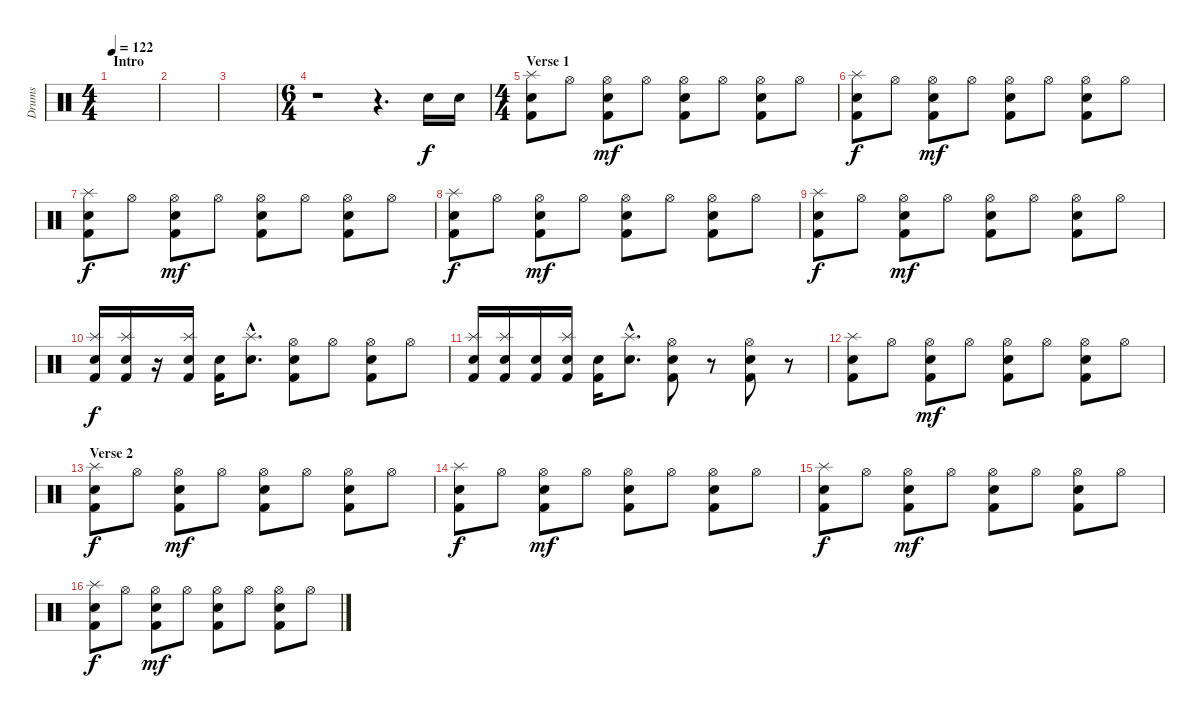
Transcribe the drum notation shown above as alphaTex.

\track ("Drums" "Drums") {instrument percussion}
\staff {score}
\articulation defaults
\ts (4 4)
\section ("" "Intro")
\tempo 122
\clef neutral
\ks c
|
|
|
\ts (6 4)
r.1 r.4{d} "Snare (hit) 2".16 "Snare (hit) 2".16 |
\ts (4 4)
\section ("" "Verse 1")
("Splash (hit)" "Snare (hit) 2" "Kick (hit) 2").8 "Hi-Hat (open)".8 ("Hi-Hat (open)" "Snare (hit) 2" "Kick (hit) 2").8{dy mf} "Hi-Hat (open)".8 ("Hi-Hat (open)" "Snare (hit) 2" "Kick (hit) 2").8 "Hi-Hat (open)".8 ("Hi-Hat (open)" "Snare (hit) 2" "Kick (hit) 2").8 "Hi-Hat (open)".8 |
("Splash (hit)" "Snare (hit) 2" "Kick (hit) 2").8{dy f} "Hi-Hat (open)".8 ("Hi-Hat (open)" "Snare (hit) 2" "Kick (hit) 2").8{dy mf} "Hi-Hat (open)".8 ("Hi-Hat (open)" "Snare (hit) 2" "Kick (hit) 2").8 "Hi-Hat (open)".8 ("Hi-Hat (open)" "Snare (hit) 2" "Kick (hit) 2").8 "Hi-Hat (open)".8 |
("Splash (hit)" "Snare (hit) 2" "Kick (hit) 2").8{dy f} "Hi-Hat (open)".8 ("Hi-Hat (open)" "Snare (hit) 2" "Kick (hit) 2").8{dy mf} "Hi-Hat (open)".8 ("Hi-Hat (open)" "Snare (hit) 2" "Kick (hit) 2").8 "Hi-Hat (open)".8 ("Hi-Hat (open)" "Snare (hit) 2" "Kick (hit) 2").8 "Hi-Hat (open)".8 |
("Splash (hit)" "Snare (hit) 2" "Kick (hit) 2").8{dy f} "Hi-Hat (open)".8 ("Hi-Hat (open)" "Snare (hit) 2" "Kick (hit) 2").8{dy mf} "Hi-Hat (open)".8 ("Hi-Hat (open)" "Snare (hit) 2" "Kick (hit) 2").8 "Hi-Hat (open)".8 ("Hi-Hat (open)" "Snare (hit) 2" "Kick (hit) 2").8 "Hi-Hat (open)".8 |
("Splash (hit)" "Snare (hit) 2" "Kick (hit) 2").8{dy f} "Hi-Hat (open)".8 ("Hi-Hat (open)" "Snare (hit) 2" "Kick (hit) 2").8{dy mf} "Hi-Hat (open)".8 ("Hi-Hat (open)" "Snare (hit) 2" "Kick (hit) 2").8 "Hi-Hat (open)".8 ("Hi-Hat (open)" "Snare (hit) 2" "Kick (hit) 2").8 "Hi-Hat (open)".8 |
("Splash (hit)" "Snare (hit) 2" "Kick (hit) 2").16{dy f} ("Splash (hit)" "Snare (hit) 2" "Kick (hit) 2").16 r.16 ("Splash (hit)" "Snare (hit) 2" "Kick (hit) 2").16 ("Snare (hit) 2" "Kick (hit) 2").16 ("Splash (hit)"{hac} "Snare (hit) 2"{hac}).8{d} ("Hi-Hat (open)" "Snare (hit) 2" "Kick (hit) 2").8 "Hi-Hat (open)".8 ("Hi-Hat (open)" "Snare (hit) 2" "Kick (hit) 2").8 "Hi-Hat (open)".8 |
("Splash (hit)" "Snare (hit) 2" "Kick (hit) 2").16 ("Splash (hit)" "Snare (hit) 2" "Kick (hit) 2").16 ("Snare (hit) 2" "Kick (hit) 2").16 ("Splash (hit)" "Snare (hit) 2" "Kick (hit) 2").16 ("Snare (hit) 2" "Kick (hit) 2").16 ("Splash (hit)"{hac} "Snare (hit) 2"{hac}).8{d} ("Hi-Hat (open)" "Snare (hit) 2" "Kick (hit) 2").8 r.8 ("Hi-Hat (open)" "Snare (hit) 2" "Kick (hit) 2").8 r.8 |
("Splash (hit)" "Snare (hit) 2" "Kick (hit) 2").8 "Hi-Hat (open)".8 ("Hi-Hat (open)" "Snare (hit) 2" "Kick (hit) 2").8{dy mf} "Hi-Hat (open)".8 ("Hi-Hat (open)" "Snare (hit) 2" "Kick (hit) 2").8 "Hi-Hat (open)".8 ("Hi-Hat (open)" "Snare (hit) 2" "Kick (hit) 2").8 "Hi-Hat (open)".8 |
\section ("" "Verse 2")
("Splash (hit)" "Snare (hit) 2" "Kick (hit) 2").8{dy f} "Hi-Hat (open)".8 ("Hi-Hat (open)" "Snare (hit) 2" "Kick (hit) 2").8{dy mf} "Hi-Hat (open)".8 ("Hi-Hat (open)" "Snare (hit) 2" "Kick (hit) 2").8 "Hi-Hat (open)".8 ("Hi-Hat (open)" "Snare (hit) 2" "Kick (hit) 2").8 "Hi-Hat (open)".8 |
("Splash (hit)" "Snare (hit) 2" "Kick (hit) 2").8{dy f} "Hi-Hat (open)".8 ("Hi-Hat (open)" "Snare (hit) 2" "Kick (hit) 2").8{dy mf} "Hi-Hat (open)".8 ("Hi-Hat (open)" "Snare (hit) 2" "Kick (hit) 2").8 "Hi-Hat (open)".8 ("Hi-Hat (open)" "Snare (hit) 2" "Kick (hit) 2").8 "Hi-Hat (open)".8 |
("Splash (hit)" "Snare (hit) 2" "Kick (hit) 2").8{dy f} "Hi-Hat (open)".8 ("Hi-Hat (open)" "Snare (hit) 2" "Kick (hit) 2").8{dy mf} "Hi-Hat (open)".8 ("Hi-Hat (open)" "Snare (hit) 2" "Kick (hit) 2").8 "Hi-Hat (open)".8 ("Hi-Hat (open)" "Snare (hit) 2" "Kick (hit) 2").8 "Hi-Hat (open)".8 |
("Splash (hit)" "Snare (hit) 2" "Kick (hit) 2").8{dy f} "Hi-Hat (open)".8 ("Hi-Hat (open)" "Snare (hit) 2" "Kick (hit) 2").8{dy mf} "Hi-Hat (open)".8 ("Hi-Hat (open)" "Snare (hit) 2" "Kick (hit) 2").8 "Hi-Hat (open)".8 ("Hi-Hat (open)" "Snare (hit) 2" "Kick (hit) 2").8 "Hi-Hat (open)".8
